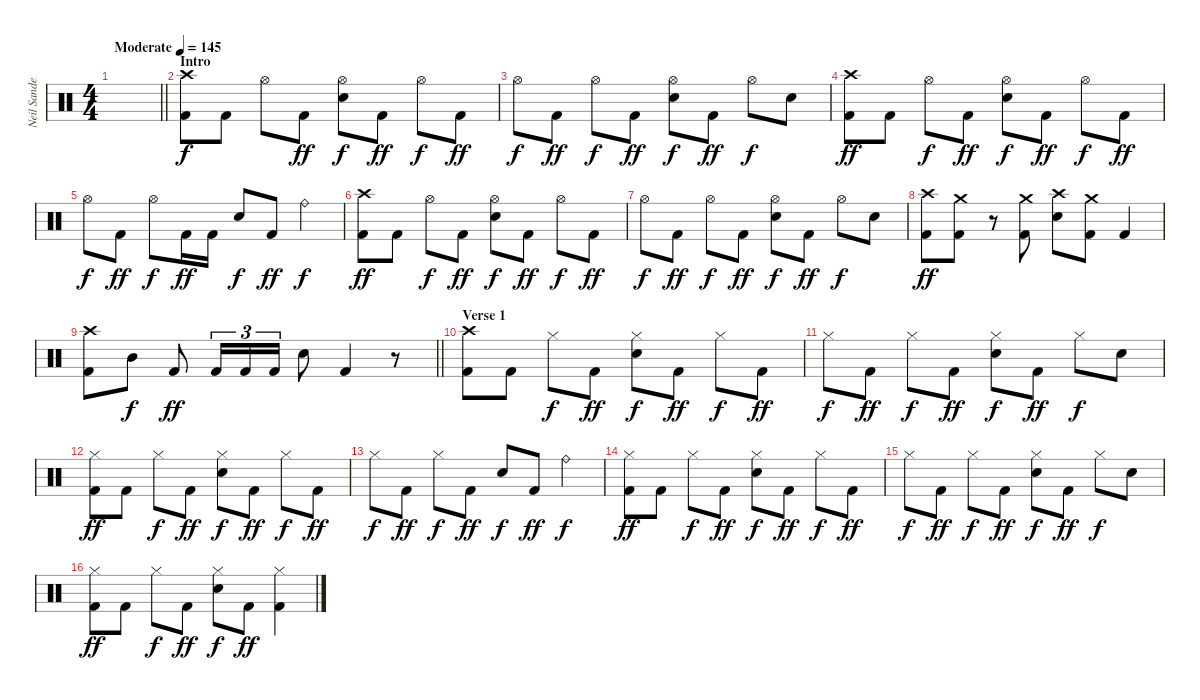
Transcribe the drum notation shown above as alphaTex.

\track ("Neil Sanderson" "Neil Sande") {instrument percussion}
\staff {score}
\articulation defaults
\ts (4 4)
\tempo (145 "Moderate")
\clef neutral
\barLineRight lightlight
\ks c
|
\section ("" "Intro")
("Crash high (hit)" "Kick (hit) 2").8 "Kick (hit) 2".8 "Hi-Hat (open)".8{dy f} "Kick (hit) 2".8{dy ff} ("Hi-Hat (open)" "Electric Snare (hit)").8{dy f} "Kick (hit) 2".8{dy ff} "Hi-Hat (open)".8{dy f} "Kick (hit) 2".8{dy ff} |
"Hi-Hat (open)".8{dy f} "Kick (hit) 2".8{dy ff} "Hi-Hat (open)".8{dy f} "Kick (hit) 2".8{dy ff} ("Hi-Hat (open)" "Electric Snare (hit)").8{dy f} "Kick (hit) 2".8{dy ff} "Hi-Hat (open)".8{dy f} "Electric Snare (hit)".8 |
("Crash high (hit)" "Kick (hit) 2").8{dy ff} "Kick (hit) 2".8 "Hi-Hat (open)".8{dy f} "Kick (hit) 2".8{dy ff} ("Hi-Hat (open)" "Electric Snare (hit)").8{dy f} "Kick (hit) 2".8{dy ff} "Hi-Hat (open)".8{dy f} "Kick (hit) 2".8{dy ff} |
"Hi-Hat (open)".8{dy f} "Kick (hit) 2".8{dy ff} "Hi-Hat (open)".8{dy f} "Kick (hit) 2".16{dy ff} "Kick (hit) 2".16 "Electric Snare (hit)".8{dy f} "Kick (hit) 2".8{dy ff} "Ride (bell)".4{dy f} |
("Crash high (hit)" "Kick (hit) 2").8{dy ff} "Kick (hit) 2".8 "Hi-Hat (open)".8{dy f} "Kick (hit) 2".8{dy ff} ("Hi-Hat (open)" "Electric Snare (hit)").8{dy f} "Kick (hit) 2".8{dy ff} "Hi-Hat (open)".8{dy f} "Kick (hit) 2".8{dy ff} |
"Hi-Hat (open)".8{dy f} "Kick (hit) 2".8{dy ff} "Hi-Hat (open)".8{dy f} "Kick (hit) 2".8{dy ff} ("Hi-Hat (open)" "Electric Snare (hit)").8{dy f} "Kick (hit) 2".8{dy ff} "Hi-Hat (open)".8{dy f} "Electric Snare (hit)".8 |
("Crash high (hit)" "Kick (hit) 2").8{dy ff} ("Crash medium (hit)" "Kick (hit) 2").8 r.8 ("Crash medium (hit)" "Kick (hit) 2").8 ("Crash high (hit)" "Electric Snare (hit)").8 ("Crash medium (hit)" "Kick (hit) 2").8 "Kick (hit) 2".4 |
\barLineRight lightlight
("Crash high (hit)" "Kick (hit) 2").8 "Mid Tom (hit)".8{dy f} "Kick (hit) 2".8{dy ff} "Kick (hit) 2".16{tu (3 2)} "Kick (hit) 2".16{tu (3 2)} "Kick (hit) 2".16{tu (3 2)} "Electric Snare (hit)".8 "Kick (hit) 2".4 r.8 |
\section ("" "Verse 1")
("Crash high (hit)" "Kick (hit) 2").8 "Kick (hit) 2".8 "Hi-Hat (closed)".8{dy f} "Kick (hit) 2".8{dy ff} ("Hi-Hat (closed)" "Electric Snare (hit)").8{dy f} "Kick (hit) 2".8{dy ff} "Hi-Hat (closed)".8{dy f} "Kick (hit) 2".8{dy ff} |
"Hi-Hat (closed)".8{dy f} "Kick (hit) 2".8{dy ff} "Hi-Hat (closed)".8{dy f} "Kick (hit) 2".8{dy ff} ("Hi-Hat (closed)" "Electric Snare (hit)").8{dy f} "Kick (hit) 2".8{dy ff} "Hi-Hat (closed)".8{dy f} "Electric Snare (hit)".8 |
("Hi-Hat (closed)" "Kick (hit) 2").8{dy ff} "Kick (hit) 2".8 "Hi-Hat (closed)".8{dy f} "Kick (hit) 2".8{dy ff} ("Hi-Hat (closed)" "Electric Snare (hit)").8{dy f} "Kick (hit) 2".8{dy ff} "Hi-Hat (closed)".8{dy f} "Kick (hit) 2".8{dy ff} |
"Hi-Hat (closed)".8{dy f} "Kick (hit) 2".8{dy ff} "Hi-Hat (closed)".8{dy f} "Kick (hit) 2".8{dy ff} "Electric Snare (hit)".8{dy f} "Kick (hit) 2".8{dy ff} "Ride (bell)".4{dy f} |
("Hi-Hat (closed)" "Kick (hit) 2").8{dy ff} "Kick (hit) 2".8 "Hi-Hat (closed)".8{dy f} "Kick (hit) 2".8{dy ff} ("Hi-Hat (closed)" "Electric Snare (hit)").8{dy f} "Kick (hit) 2".8{dy ff} "Hi-Hat (closed)".8{dy f} "Kick (hit) 2".8{dy ff} |
"Hi-Hat (closed)".8{dy f} "Kick (hit) 2".8{dy ff} "Hi-Hat (closed)".8{dy f} "Kick (hit) 2".8{dy ff} ("Hi-Hat (closed)" "Electric Snare (hit)").8{dy f} "Kick (hit) 2".8{dy ff} "Hi-Hat (closed)".8{dy f} "Electric Snare (hit)".8 |
("Hi-Hat (closed)" "Kick (hit) 2").8{dy ff} "Kick (hit) 2".8 "Hi-Hat (closed)".8{dy f} "Kick (hit) 2".8{dy ff} ("Hi-Hat (closed)" "Electric Snare (hit)").8{dy f} "Kick (hit) 2".8{dy ff} ("Hi-Hat (closed)" "Kick (hit) 2").4
